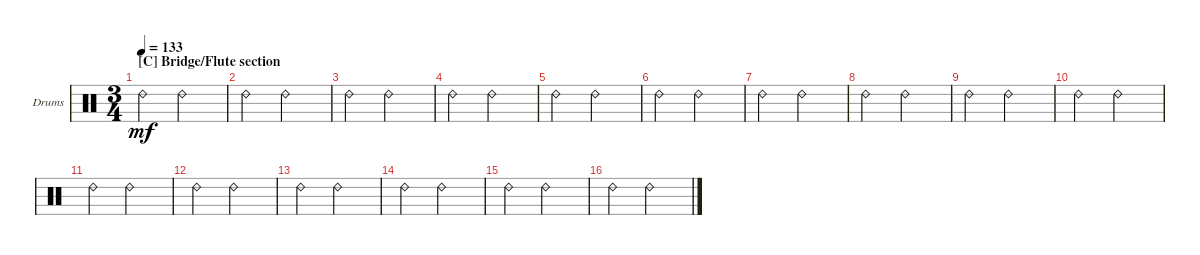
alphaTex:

\bracketExtendMode groupsimilarinstruments
\firstSystemTrackNameOrientation horizontal
\otherSystemsTrackNameOrientation horizontal
\track ("Drumkit" "Drums") {instrument percussion}
\staff {score}
\articulation defaults
\ts (3 4)
\section ("C" "Bridge/Flute section")
\tempo 133
\clef neutral
\ks c "Ride (bell) 2".4{dy mf} "Ride (bell) 2".2
|
"Ride (bell) 2".4 "Ride (bell) 2".2 |
"Ride (bell) 2".4 "Ride (bell) 2".2 |
"Ride (bell) 2".4 "Ride (bell) 2".2 |
"Ride (bell) 2".4 "Ride (bell) 2".2 |
"Ride (bell) 2".4 "Ride (bell) 2".2 |
"Ride (bell) 2".4 "Ride (bell) 2".2 |
"Ride (bell) 2".4 "Ride (bell) 2".2 |
"Ride (bell) 2".4 "Ride (bell) 2".2 |
"Ride (bell) 2".4 "Ride (bell) 2".2 |
"Ride (bell) 2".4 "Ride (bell) 2".2 |
"Ride (bell) 2".4 "Ride (bell) 2".2 |
"Ride (bell) 2".4 "Ride (bell) 2".2 |
"Ride (bell) 2".4 "Ride (bell) 2".2 |
"Ride (bell) 2".4 "Ride (bell) 2".2 |
"Ride (bell) 2".4 "Ride (bell) 2".2
